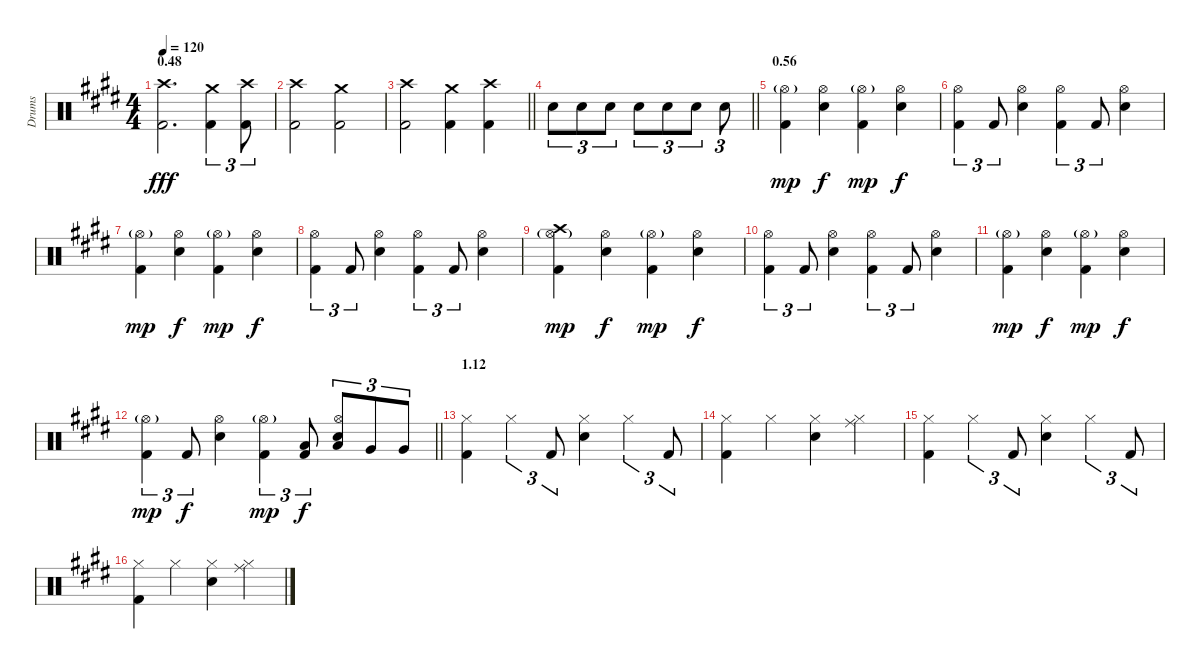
\track ("Drums" "Drums") {instrument percussion}
\staff {score}
\articulation defaults
\ts (4 4)
\section ("" "0.48")
\tempo 120
\clef neutral
\ks c#minor
("Crash high (hit)" "Kick (hit) 2").2{d dy fff} ("Crash medium (hit)" "Kick (hit) 2").4{tu (3 2)} ("Crash high (hit)" "Kick (hit) 2").8{tu (3 2)} |
("Crash high (hit)" "Kick (hit) 2").2 ("Crash medium (hit)" "Kick (hit) 2").2 |
\barLineRight lightlight
("Crash high (hit)" "Kick (hit) 2").2 ("Crash medium (hit)" "Kick (hit) 2").4 ("Crash high (hit)" "Kick (hit) 2").4 |
\barLineRight lightlight "Electric Snare (hit)".8{tu (3 2)} "Electric Snare (hit)".8{tu (3 2)} "Electric Snare (hit)".8{tu (3 2)} "Electric Snare (hit)".8{tu (3 2)} "Electric Snare (hit)".8{tu (3 2)} "Electric Snare (hit)".8{tu (3 2)} "Electric Snare (hit)".8{tu (3 2)}
|
\section ("" "0.56")
("Hi-Hat (open)"{g} "Kick (hit) 2").4{dy mp} ("Hi-Hat (open)" "Electric Snare (hit)").4{dy f} ("Hi-Hat (open)"{g} "Kick (hit) 2").4{dy mp} ("Hi-Hat (open)" "Electric Snare (hit)").4{dy f} |
("Hi-Hat (open)" "Kick (hit) 2").4{tu (3 2)} "Kick (hit) 2".8{tu (3 2)} ("Hi-Hat (open)" "Electric Snare (hit)").4 ("Hi-Hat (open)" "Kick (hit) 2").4{tu (3 2)} "Kick (hit) 2".8{tu (3 2)} ("Hi-Hat (open)" "Electric Snare (hit)").4 |
("Hi-Hat (open)"{g} "Kick (hit) 2").4{dy mp} ("Hi-Hat (open)" "Electric Snare (hit)").4{dy f} ("Hi-Hat (open)"{g} "Kick (hit) 2").4{dy mp} ("Hi-Hat (open)" "Electric Snare (hit)").4{dy f} |
("Hi-Hat (open)" "Kick (hit) 2").4{tu (3 2)} "Kick (hit) 2".8{tu (3 2)} ("Hi-Hat (open)" "Electric Snare (hit)").4 ("Hi-Hat (open)" "Kick (hit) 2").4{tu (3 2)} "Kick (hit) 2".8{tu (3 2)} ("Hi-Hat (open)" "Electric Snare (hit)").4 |
("Crash high (hit)" "Hi-Hat (open)"{g} "Kick (hit) 2").4{dy mp} ("Hi-Hat (open)" "Electric Snare (hit)").4{dy f} ("Hi-Hat (open)"{g} "Kick (hit) 2").4{dy mp} ("Hi-Hat (open)" "Electric Snare (hit)").4{dy f} |
("Hi-Hat (open)" "Kick (hit) 2").4{tu (3 2)} "Kick (hit) 2".8{tu (3 2)} ("Hi-Hat (open)" "Electric Snare (hit)").4 ("Hi-Hat (open)" "Kick (hit) 2").4{tu (3 2)} "Kick (hit) 2".8{tu (3 2)} ("Hi-Hat (open)" "Electric Snare (hit)").4 |
("Hi-Hat (open)"{g} "Kick (hit) 2").4{dy mp} ("Hi-Hat (open)" "Electric Snare (hit)").4{dy f} ("Hi-Hat (open)"{g} "Kick (hit) 2").4{dy mp} ("Hi-Hat (open)" "Electric Snare (hit)").4{dy f} |
\barLineRight lightlight
("Hi-Hat (open)"{g} "Kick (hit) 2").4{tu (3 2) dy mp} "Kick (hit) 2".8{tu (3 2) dy f} ("Hi-Hat (open)" "Electric Snare (hit)").4 ("Hi-Hat (open)"{g} "Kick (hit) 2").4{tu (3 2) dy mp} ("Low Tom (hit)" "Kick (hit) 2").8{tu (3 2) dy f} ("Hi-Hat (open)" "Electric Snare (hit)" "Low Tom (hit)").8{tu (3 2)} "Very Low Tom (hit)".8{tu (3 2)} "Very Low Tom (hit)".8{tu (3 2)} |
\section ("" "1.12")
("Hi-Hat (closed)" "Kick (hit) 2").4 "Hi-Hat (closed)".4{tu (3 2)} "Kick (hit) 2".8{tu (3 2)} ("Hi-Hat (closed)" "Electric Snare (hit)").4 "Hi-Hat (closed)".4{tu (3 2)} "Kick (hit) 2".8{tu (3 2)} |
("Hi-Hat (closed)" "Kick (hit) 2").4 "Hi-Hat (closed)".4 ("Hi-Hat (closed)" "Electric Snare (hit)").4 ("Ride (middle)" "Hi-Hat (closed)").4 |
("Hi-Hat (closed)" "Kick (hit) 2").4 "Hi-Hat (closed)".4{tu (3 2)} "Kick (hit) 2".8{tu (3 2)} ("Hi-Hat (closed)" "Electric Snare (hit)").4 "Hi-Hat (closed)".4{tu (3 2)} "Kick (hit) 2".8{tu (3 2)} |
("Hi-Hat (closed)" "Kick (hit) 2").4 "Hi-Hat (closed)".4 ("Hi-Hat (closed)" "Electric Snare (hit)").4 ("Ride (middle)" "Hi-Hat (closed)").4
